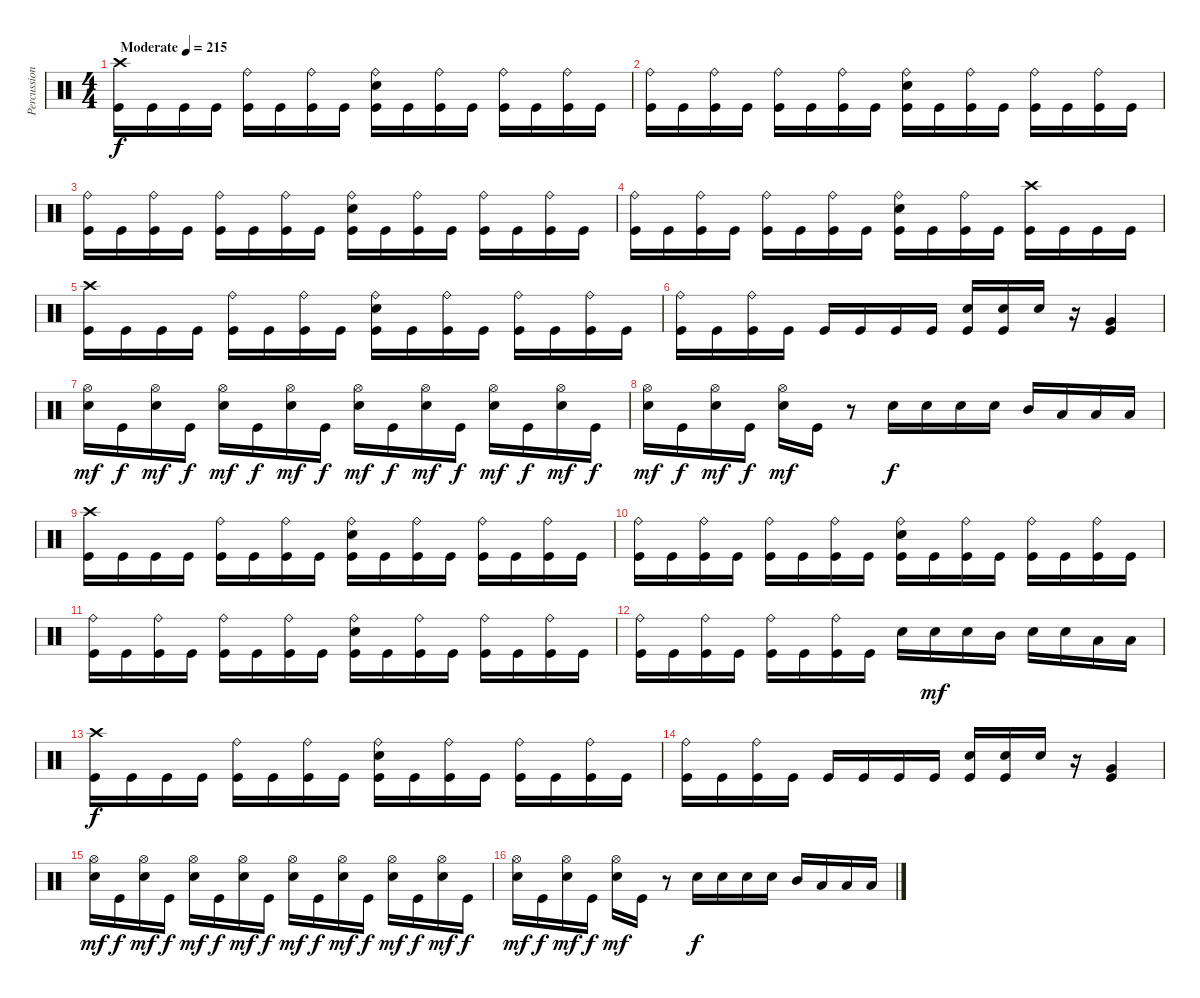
\track ("Percussion" "Percussion") {instrument percussion}
\staff {score}
\articulation defaults
\ts (4 4)
\tempo (215 "Moderate")
\clef neutral
\ks c
("Crash high (hit)" "Kick (hit)").16{dy f} "Kick (hit)".16 "Kick (hit)".16 "Kick (hit)".16 ("Ride (bell)" "Kick (hit)").16 "Kick (hit)".16 ("Ride (bell)" "Kick (hit)").16 "Kick (hit)".16 ("Ride (bell)" "Electric Snare (hit)" "Kick (hit)").16 "Kick (hit)".16 ("Ride (bell)" "Kick (hit)").16 "Kick (hit)".16 ("Ride (bell)" "Kick (hit)").16 "Kick (hit)".16 ("Ride (bell)" "Kick (hit)").16 "Kick (hit)".16 |
("Ride (bell)" "Kick (hit)").16 "Kick (hit)".16 ("Ride (bell)" "Kick (hit)").16 "Kick (hit)".16 ("Ride (bell)" "Kick (hit)").16 "Kick (hit)".16 ("Ride (bell)" "Kick (hit)").16 "Kick (hit)".16 ("Ride (bell)" "Electric Snare (hit)" "Kick (hit)").16 "Kick (hit)".16 ("Ride (bell)" "Kick (hit)").16 "Kick (hit)".16 ("Ride (bell)" "Kick (hit)").16 "Kick (hit)".16 ("Ride (bell)" "Kick (hit)").16 "Kick (hit)".16 |
("Ride (bell)" "Kick (hit)").16 "Kick (hit)".16 ("Ride (bell)" "Kick (hit)").16 "Kick (hit)".16 ("Ride (bell)" "Kick (hit)").16 "Kick (hit)".16 ("Ride (bell)" "Kick (hit)").16 "Kick (hit)".16 ("Ride (bell)" "Electric Snare (hit)" "Kick (hit)").16 "Kick (hit)".16 ("Ride (bell)" "Kick (hit)").16 "Kick (hit)".16 ("Ride (bell)" "Kick (hit)").16 "Kick (hit)".16 ("Ride (bell)" "Kick (hit)").16 "Kick (hit)".16 |
("Ride (bell)" "Kick (hit)").16 "Kick (hit)".16 ("Ride (bell)" "Kick (hit)").16 "Kick (hit)".16 ("Ride (bell)" "Kick (hit)").16 "Kick (hit)".16 ("Ride (bell)" "Kick (hit)").16 "Kick (hit)".16 ("Ride (bell)" "Electric Snare (hit)" "Kick (hit)").16 "Kick (hit)".16 ("Ride (bell)" "Kick (hit)").16 "Kick (hit)".16 ("Crash high (hit)" "Kick (hit)").16 "Kick (hit)".16 "Kick (hit)".16 "Kick (hit)".16 |
("Crash high (hit)" "Kick (hit)").16 "Kick (hit)".16 "Kick (hit)".16 "Kick (hit)".16 ("Ride (bell)" "Kick (hit)").16 "Kick (hit)".16 ("Ride (bell)" "Kick (hit)").16 "Kick (hit)".16 ("Ride (bell)" "Electric Snare (hit)" "Kick (hit)").16 "Kick (hit)".16 ("Ride (bell)" "Kick (hit)").16 "Kick (hit)".16 ("Ride (bell)" "Kick (hit)").16 "Kick (hit)".16 ("Ride (bell)" "Kick (hit)").16 "Kick (hit)".16 |
("Ride (bell)" "Kick (hit)").16 "Kick (hit)".16 ("Ride (bell)" "Kick (hit)").16 "Kick (hit)".16 "Kick (hit)".16 "Kick (hit)".16 "Kick (hit)".16 "Kick (hit)".16 ("Electric Snare (hit)" "Kick (hit)").16 ("Electric Snare (hit)" "Kick (hit)").16 "Electric Snare (hit)".16 r.16 ("Very Low Tom (hit)" "Kick (hit)").4 |
("Hi-Hat (open)" "Electric Snare (hit)").16{dy mf} "Kick (hit)".16{dy f} ("Hi-Hat (open)" "Electric Snare (hit)").16{dy mf} "Kick (hit)".16{dy f} ("Hi-Hat (open)" "Electric Snare (hit)").16{dy mf} "Kick (hit)".16{dy f} ("Hi-Hat (open)" "Electric Snare (hit)").16{dy mf} "Kick (hit)".16{dy f} ("Hi-Hat (open)" "Electric Snare (hit)").16{dy mf} "Kick (hit)".16{dy f} ("Hi-Hat (open)" "Electric Snare (hit)").16{dy mf} "Kick (hit)".16{dy f} ("Hi-Hat (open)" "Electric Snare (hit)").16{dy mf} "Kick (hit)".16{dy f} ("Hi-Hat (open)" "Electric Snare (hit)").16{dy mf} "Kick (hit)".16{dy f} |
("Hi-Hat (open)" "Electric Snare (hit)").16{dy mf} "Kick (hit)".16{dy f} ("Hi-Hat (open)" "Electric Snare (hit)").16{dy mf} "Kick (hit)".16{dy f} ("Hi-Hat (open)" "Electric Snare (hit)").16{dy mf} "Kick (hit)".16 r.8 "Electric Snare (hit)".16{dy f} "Electric Snare (hit)".16 "Electric Snare (hit)".16 "Electric Snare (hit)".16 "Mid Tom (hit)".16 "Low Tom (hit)".16 "Low Floor Tom (hit)".16 "Low Floor Tom (hit)".16 |
("Crash high (hit)" "Kick (hit)").16 "Kick (hit)".16 "Kick (hit)".16 "Kick (hit)".16 ("Ride (bell)" "Kick (hit)").16 "Kick (hit)".16 ("Ride (bell)" "Kick (hit)").16 "Kick (hit)".16 ("Ride (bell)" "Electric Snare (hit)" "Kick (hit)").16 "Kick (hit)".16 ("Ride (bell)" "Kick (hit)").16 "Kick (hit)".16 ("Ride (bell)" "Kick (hit)").16 "Kick (hit)".16 ("Ride (bell)" "Kick (hit)").16 "Kick (hit)".16 |
("Ride (bell)" "Kick (hit)").16 "Kick (hit)".16 ("Ride (bell)" "Kick (hit)").16 "Kick (hit)".16 ("Ride (bell)" "Kick (hit)").16 "Kick (hit)".16 ("Ride (bell)" "Kick (hit)").16 "Kick (hit)".16 ("Ride (bell)" "Electric Snare (hit)" "Kick (hit)").16 "Kick (hit)".16 ("Ride (bell)" "Kick (hit)").16 "Kick (hit)".16 ("Ride (bell)" "Kick (hit)").16 "Kick (hit)".16 ("Ride (bell)" "Kick (hit)").16 "Kick (hit)".16 |
("Ride (bell)" "Kick (hit)").16 "Kick (hit)".16 ("Ride (bell)" "Kick (hit)").16 "Kick (hit)".16 ("Ride (bell)" "Kick (hit)").16 "Kick (hit)".16 ("Ride (bell)" "Kick (hit)").16 "Kick (hit)".16 ("Ride (bell)" "Electric Snare (hit)" "Kick (hit)").16 "Kick (hit)".16 ("Ride (bell)" "Kick (hit)").16 "Kick (hit)".16 ("Ride (bell)" "Kick (hit)").16 "Kick (hit)".16 ("Ride (bell)" "Kick (hit)").16 "Kick (hit)".16 |
("Ride (bell)" "Kick (hit)").16 "Kick (hit)".16 ("Ride (bell)" "Kick (hit)").16 "Kick (hit)".16 ("Ride (bell)" "Kick (hit)").16 "Kick (hit)".16 ("Ride (bell)" "Kick (hit)").16 "Kick (hit)".16 "Electric Snare (hit)".16 "Electric Snare (hit)".16{dy mf} "Electric Snare (hit)".16 "Mid Tom (hit)".16 "Electric Snare (hit)".16 "Electric Snare (hit)".16 "Low Floor Tom (hit)".16 "Low Floor Tom (hit)".16 |
("Crash high (hit)" "Kick (hit)").16{dy f} "Kick (hit)".16 "Kick (hit)".16 "Kick (hit)".16 ("Ride (bell)" "Kick (hit)").16 "Kick (hit)".16 ("Ride (bell)" "Kick (hit)").16 "Kick (hit)".16 ("Ride (bell)" "Electric Snare (hit)" "Kick (hit)").16 "Kick (hit)".16 ("Ride (bell)" "Kick (hit)").16 "Kick (hit)".16 ("Ride (bell)" "Kick (hit)").16 "Kick (hit)".16 ("Ride (bell)" "Kick (hit)").16 "Kick (hit)".16 |
("Ride (bell)" "Kick (hit)").16 "Kick (hit)".16 ("Ride (bell)" "Kick (hit)").16 "Kick (hit)".16 "Kick (hit)".16 "Kick (hit)".16 "Kick (hit)".16 "Kick (hit)".16 ("Electric Snare (hit)" "Kick (hit)").16 ("Electric Snare (hit)" "Kick (hit)").16 "Electric Snare (hit)".16 r.16 ("Very Low Tom (hit)" "Kick (hit)").4 |
("Hi-Hat (open)" "Electric Snare (hit)").16{dy mf} "Kick (hit)".16{dy f} ("Hi-Hat (open)" "Electric Snare (hit)").16{dy mf} "Kick (hit)".16{dy f} ("Hi-Hat (open)" "Electric Snare (hit)").16{dy mf} "Kick (hit)".16{dy f} ("Hi-Hat (open)" "Electric Snare (hit)").16{dy mf} "Kick (hit)".16{dy f} ("Hi-Hat (open)" "Electric Snare (hit)").16{dy mf} "Kick (hit)".16{dy f} ("Hi-Hat (open)" "Electric Snare (hit)").16{dy mf} "Kick (hit)".16{dy f} ("Hi-Hat (open)" "Electric Snare (hit)").16{dy mf} "Kick (hit)".16{dy f} ("Hi-Hat (open)" "Electric Snare (hit)").16{dy mf} "Kick (hit)".16{dy f} |
("Hi-Hat (open)" "Electric Snare (hit)").16{dy mf} "Kick (hit)".16{dy f} ("Hi-Hat (open)" "Electric Snare (hit)").16{dy mf} "Kick (hit)".16{dy f} ("Hi-Hat (open)" "Electric Snare (hit)").16{dy mf} "Kick (hit)".16 r.8 "Electric Snare (hit)".16{dy f} "Electric Snare (hit)".16 "Electric Snare (hit)".16 "Electric Snare (hit)".16 "Mid Tom (hit)".16 "Low Tom (hit)".16 "Low Floor Tom (hit)".16 "Low Floor Tom (hit)".16
